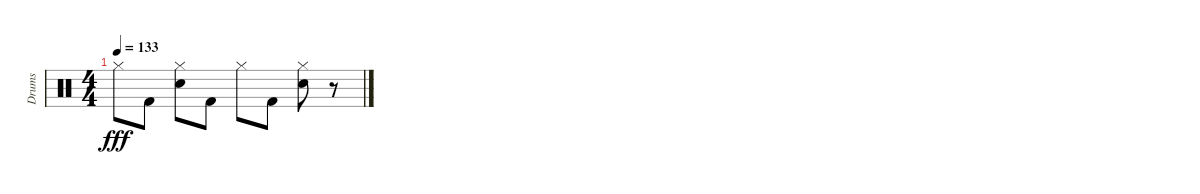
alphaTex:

\track ("Drums" "Drums") {instrument percussion}
\staff {score}
\articulation defaults
\ts (4 4)
\tempo 133
\clef neutral
\ks c "Hi-Hat (closed)".8{dy fff} "Kick (hit) 2".8
("Hi-Hat (closed)" "Snare (hit) 2").8 "Kick (hit) 2".8 "Hi-Hat (closed)".8 "Kick (hit) 2".8 ("Hi-Hat (closed)" "Snare (hit) 2").8 r.8
